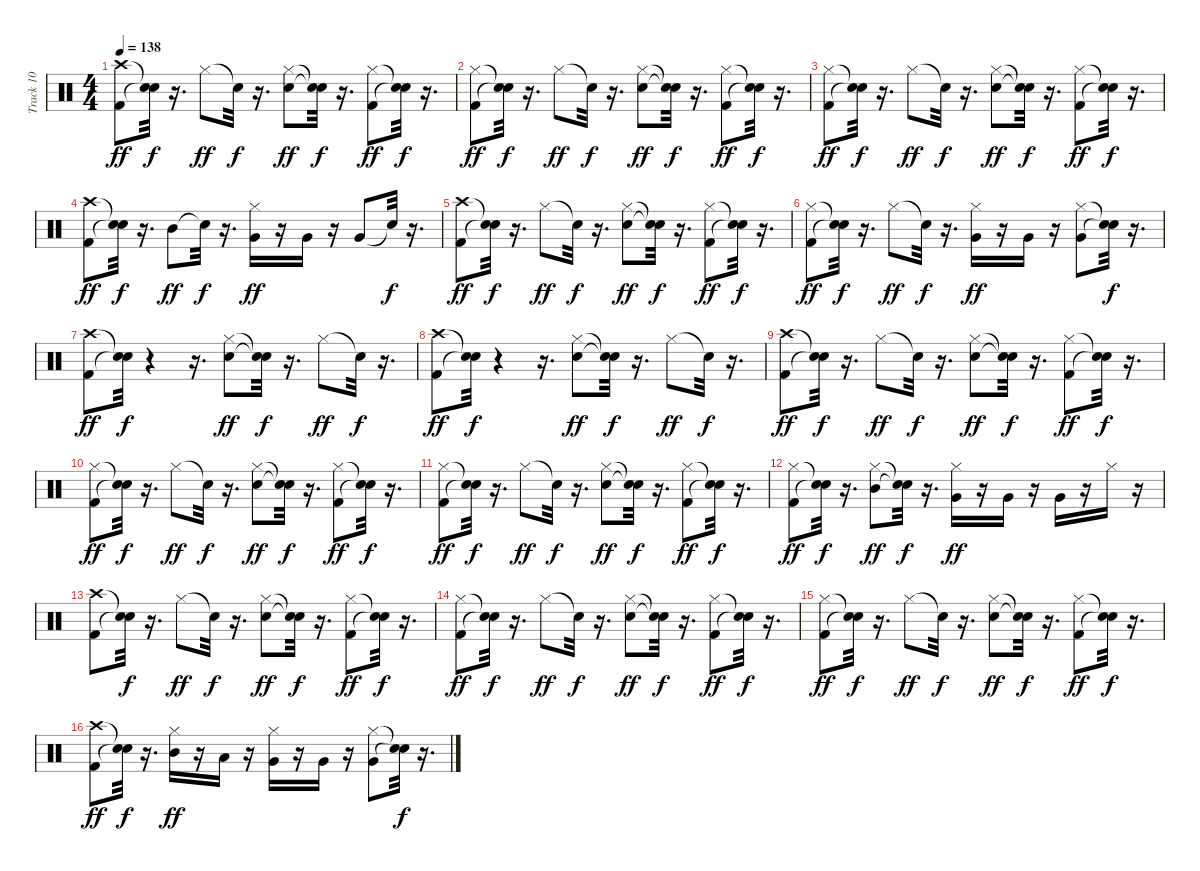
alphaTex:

\track ("Track 10" "Track 10") {instrument percussion}
\staff {score}
\articulation defaults
\ts (4 4)
\tempo 138
\clef neutral
\ks c
("Crash high (hit)" "Kick (hit) 2").8{dy ff} ("Snare (hit)"{t} "Snare (hit)"{t}).32{dy f} r.16{d} "Hi-Hat (closed)".8{dy ff} "Snare (hit)"{t}.32{dy f} r.16{d} ("Snare (hit) 2" "Hi-Hat (closed)").8{dy ff} ("Snare (hit)"{t} "Snare (hit)"{t}).32{dy f} r.16{d} ("Hi-Hat (closed)" "Kick (hit) 2").8{dy ff} ("Snare (hit)"{t} "Snare (hit)"{t}).32{dy f} r.16{d} |
("Hi-Hat (closed)" "Kick (hit) 2").8{dy ff} ("Snare (hit)"{t} "Snare (hit)"{t}).32{dy f} r.16{d} "Hi-Hat (closed)".8{dy ff} "Snare (hit)"{t}.32{dy f} r.16{d} ("Snare (hit) 2" "Hi-Hat (closed)").8{dy ff} ("Snare (hit)"{t} "Snare (hit)"{t}).32{dy f} r.16{d} ("Hi-Hat (closed)" "Kick (hit) 2").8{dy ff} ("Snare (hit)"{t} "Snare (hit)"{t}).32{dy f} r.16{d} |
("Hi-Hat (closed)" "Kick (hit) 2").8{dy ff} ("Snare (hit)"{t} "Snare (hit)"{t}).32{dy f} r.16{d} "Hi-Hat (closed)".8{dy ff} "Snare (hit)"{t}.32{dy f} r.16{d} ("Snare (hit) 2" "Hi-Hat (closed)").8{dy ff} ("Snare (hit)"{t} "Snare (hit)"{t}).32{dy f} r.16{d} ("Hi-Hat (closed)" "Kick (hit) 2").8{dy ff} ("Snare (hit)"{t} "Snare (hit)"{t}).32{dy f} r.16{d} |
("Crash high (hit)" "Kick (hit) 2").8{dy ff} ("Snare (hit)"{t} "Snare (hit)"{t}).32{dy f} r.16{d} "Mid Tom (hit)".8{dy ff} "Snare (hit)"{t}.32{dy f} r.16{d} ("Very Low Tom (hit)" "Hi-Hat (closed)").16{dy ff} r.16 "Very Low Tom (hit)".16 r.16 "Very Low Tom (hit)".8 "Snare (hit)"{t}.32{dy f} r.16{d} |
("Crash high (hit)" "Kick (hit) 2").8{dy ff} ("Snare (hit)"{t} "Snare (hit)"{t}).32{dy f} r.16{d} "Hi-Hat (closed)".8{dy ff} "Snare (hit)"{t}.32{dy f} r.16{d} ("Snare (hit) 2" "Hi-Hat (closed)").8{dy ff} ("Snare (hit)"{t} "Snare (hit)"{t}).32{dy f} r.16{d} ("Hi-Hat (closed)" "Kick (hit) 2").8{dy ff} ("Snare (hit)"{t} "Snare (hit)"{t}).32{dy f} r.16{d} |
("Hi-Hat (closed)" "Kick (hit) 2").8{dy ff} ("Snare (hit)"{t} "Snare (hit)"{t}).32{dy f} r.16{d} "Hi-Hat (closed)".8{dy ff} "Snare (hit)"{t}.32{dy f} r.16{d} ("Very Low Tom (hit)" "Hi-Hat (closed)").16{dy ff} r.16 "Very Low Tom (hit)".16 r.16 ("Very Low Tom (hit)" "Hi-Hat (closed)").8 ("Snare (hit)"{t} "Snare (hit)"{t}).32{dy f} r.16{d} |
("Crash high (hit)" "Kick (hit) 2").8{dy ff} ("Snare (hit)"{t} "Snare (hit)"{t}).32{dy f} r.4 r.16{d} ("Snare (hit) 2" "Hi-Hat (closed)").8{dy ff} ("Snare (hit)"{t} "Snare (hit)"{t}).32{dy f} r.16{d} "Hi-Hat (closed)".8{dy ff} "Snare (hit)"{t}.32{dy f} r.16{d} |
("Crash high (hit)" "Kick (hit) 2").8{dy ff} ("Snare (hit)"{t} "Snare (hit)"{t}).32{dy f} r.4 r.16{d} ("Snare (hit) 2" "Hi-Hat (closed)").8{dy ff} ("Snare (hit)"{t} "Snare (hit)"{t}).32{dy f} r.16{d} "Hi-Hat (closed)".8{dy ff} "Snare (hit)"{t}.32{dy f} r.16{d} |
("Crash high (hit)" "Kick (hit) 2").8{dy ff} ("Snare (hit)"{t} "Snare (hit)"{t}).32{dy f} r.16{d} "Hi-Hat (closed)".8{dy ff} "Snare (hit)"{t}.32{dy f} r.16{d} ("Snare (hit) 2" "Hi-Hat (closed)").8{dy ff} ("Snare (hit)"{t} "Snare (hit)"{t}).32{dy f} r.16{d} ("Hi-Hat (closed)" "Kick (hit) 2").8{dy ff} ("Snare (hit)"{t} "Snare (hit)"{t}).32{dy f} r.16{d} |
("Hi-Hat (closed)" "Kick (hit) 2").8{dy ff} ("Snare (hit)"{t} "Snare (hit)"{t}).32{dy f} r.16{d} "Hi-Hat (closed)".8{dy ff} "Snare (hit)"{t}.32{dy f} r.16{d} ("Snare (hit) 2" "Hi-Hat (closed)").8{dy ff} ("Snare (hit)"{t} "Snare (hit)"{t}).32{dy f} r.16{d} ("Hi-Hat (closed)" "Kick (hit) 2").8{dy ff} ("Snare (hit)"{t} "Snare (hit)"{t}).32{dy f} r.16{d} |
("Hi-Hat (closed)" "Kick (hit) 2").8{dy ff} ("Snare (hit)"{t} "Snare (hit)"{t}).32{dy f} r.16{d} "Hi-Hat (closed)".8{dy ff} "Snare (hit)"{t}.32{dy f} r.16{d} ("Snare (hit) 2" "Hi-Hat (closed)").8{dy ff} ("Snare (hit)"{t} "Snare (hit)"{t}).32{dy f} r.16{d} ("Hi-Hat (closed)" "Kick (hit) 2").8{dy ff} ("Snare (hit)"{t} "Snare (hit)"{t}).32{dy f} r.16{d} |
("Hi-Hat (closed)" "Kick (hit) 2").8{dy ff} ("Snare (hit)"{t} "Snare (hit)"{t}).32{dy f} r.16{d} ("Mid Tom (hit)" "Hi-Hat (closed)").8{dy ff} ("Snare (hit)"{t} "Snare (hit)"{t}).32{dy f} r.16{d} ("Very Low Tom (hit)" "Hi-Hat (closed)").16{dy ff} r.16 "Very Low Tom (hit)".16 r.16 "Very Low Tom (hit)".16 r.16 "Hi-Hat (closed)".16 r.16 |
("Crash high (hit)" "Kick (hit) 2").8 ("Snare (hit)"{t} "Snare (hit)"{t}).32{dy f} r.16{d} "Hi-Hat (closed)".8{dy ff} "Snare (hit)"{t}.32{dy f} r.16{d} ("Snare (hit) 2" "Hi-Hat (closed)").8{dy ff} ("Snare (hit)"{t} "Snare (hit)"{t}).32{dy f} r.16{d} ("Hi-Hat (closed)" "Kick (hit) 2").8{dy ff} ("Snare (hit)"{t} "Snare (hit)"{t}).32{dy f} r.16{d} |
("Hi-Hat (closed)" "Kick (hit) 2").8{dy ff} ("Snare (hit)"{t} "Snare (hit)"{t}).32{dy f} r.16{d} "Hi-Hat (closed)".8{dy ff} "Snare (hit)"{t}.32{dy f} r.16{d} ("Snare (hit) 2" "Hi-Hat (closed)").8{dy ff} ("Snare (hit)"{t} "Snare (hit)"{t}).32{dy f} r.16{d} ("Hi-Hat (closed)" "Kick (hit) 2").8{dy ff} ("Snare (hit)"{t} "Snare (hit)"{t}).32{dy f} r.16{d} |
("Hi-Hat (closed)" "Kick (hit) 2").8{dy ff} ("Snare (hit)"{t} "Snare (hit)"{t}).32{dy f} r.16{d} "Hi-Hat (closed)".8{dy ff} "Snare (hit)"{t}.32{dy f} r.16{d} ("Snare (hit) 2" "Hi-Hat (closed)").8{dy ff} ("Snare (hit)"{t} "Snare (hit)"{t}).32{dy f} r.16{d} ("Hi-Hat (closed)" "Kick (hit) 2").8{dy ff} ("Snare (hit)"{t} "Snare (hit)"{t}).32{dy f} r.16{d} |
("Crash high (hit)" "Kick (hit) 2").8{dy ff} ("Snare (hit)"{t} "Snare (hit)"{t}).32{dy f} r.16{d} ("Mid Tom (hit)" "Hi-Hat (closed)").16{dy ff} r.16 "Low Tom (hit)".16 r.16 ("Very Low Tom (hit)" "Hi-Hat (closed)").16 r.16 "Very Low Tom (hit)".16 r.16 ("Very Low Tom (hit)" "Hi-Hat (closed)").8 ("Snare (hit)"{t} "Snare (hit)"{t}).32{dy f} r.16{d}
